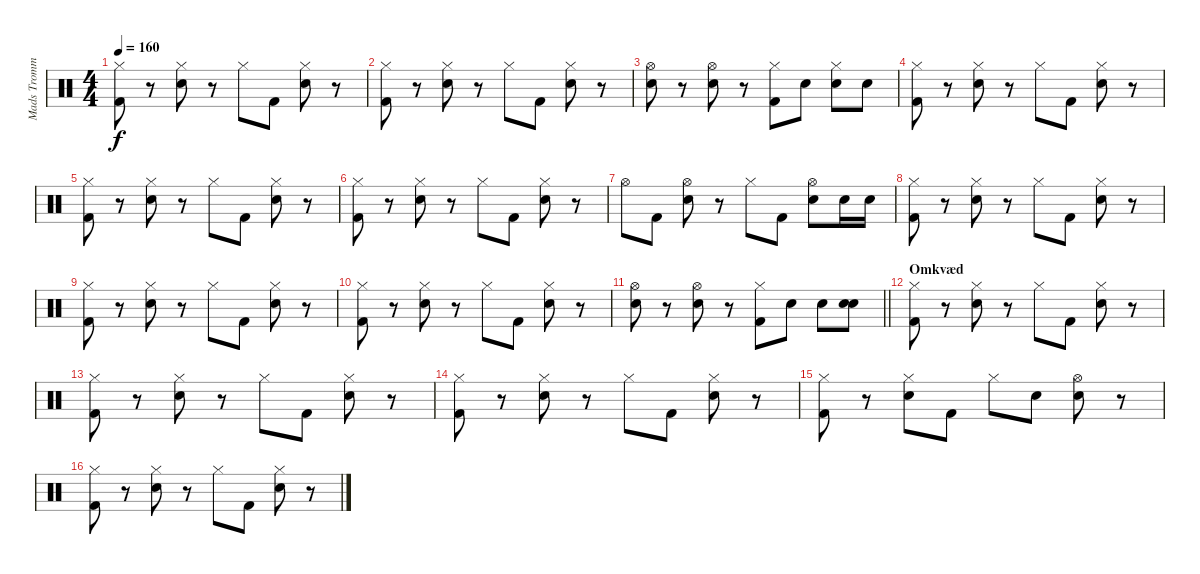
\track ("Mads Trommer" "Mads Tromm") {instrument percussion}
\staff {score}
\articulation defaults
\ts (4 4)
\tempo 160
\clef neutral
\ks c
("Hi-Hat (closed)" "Kick (hit) 2").8{dy f} r.8 ("Hi-Hat (closed)" "Electric Snare (hit)").8 r.8 "Hi-Hat (closed)".8 "Kick (hit) 2".8 ("Hi-Hat (closed)" "Electric Snare (hit)").8 r.8 |
("Hi-Hat (closed)" "Kick (hit) 2").8 r.8 ("Hi-Hat (closed)" "Electric Snare (hit)").8 r.8 "Hi-Hat (closed)".8 "Kick (hit) 2".8 ("Hi-Hat (closed)" "Electric Snare (hit)").8 r.8 |
("Hi-Hat (open)" "Electric Snare (hit)").8 r.8 ("Hi-Hat (open)" "Electric Snare (hit)").8 r.8 ("Hi-Hat (closed)" "Kick (hit) 2").8 "Electric Snare (hit)".8 ("Hi-Hat (closed)" "Electric Snare (hit)").8 "Electric Snare (hit)".8 |
("Hi-Hat (closed)" "Kick (hit) 2").8 r.8 ("Hi-Hat (closed)" "Electric Snare (hit)").8 r.8 "Hi-Hat (closed)".8 "Kick (hit) 2".8 ("Hi-Hat (closed)" "Electric Snare (hit)").8 r.8 |
("Hi-Hat (closed)" "Kick (hit) 2").8 r.8 ("Hi-Hat (closed)" "Electric Snare (hit)").8 r.8 "Hi-Hat (closed)".8 "Kick (hit) 2".8 ("Hi-Hat (closed)" "Electric Snare (hit)").8 r.8 |
("Hi-Hat (closed)" "Kick (hit) 2").8 r.8 ("Hi-Hat (closed)" "Electric Snare (hit)").8 r.8 "Hi-Hat (closed)".8 "Kick (hit) 2".8 ("Hi-Hat (closed)" "Electric Snare (hit)").8 r.8 |
"Hi-Hat (open)".8 "Kick (hit) 2".8 ("Hi-Hat (open)" "Electric Snare (hit)").8 r.8 "Hi-Hat (closed)".8 "Kick (hit) 2".8 ("Hi-Hat (open)" "Electric Snare (hit)").8 "Electric Snare (hit)".16 "Electric Snare (hit)".16 |
("Hi-Hat (closed)" "Kick (hit) 2").8 r.8 ("Hi-Hat (closed)" "Electric Snare (hit)").8 r.8 "Hi-Hat (closed)".8 "Kick (hit) 2".8 ("Hi-Hat (closed)" "Electric Snare (hit)").8 r.8 |
("Hi-Hat (closed)" "Kick (hit) 2").8 r.8 ("Hi-Hat (closed)" "Electric Snare (hit)").8 r.8 "Hi-Hat (closed)".8 "Kick (hit) 2".8 ("Hi-Hat (closed)" "Electric Snare (hit)").8 r.8 |
("Hi-Hat (closed)" "Kick (hit) 2").8 r.8 ("Hi-Hat (closed)" "Electric Snare (hit)").8 r.8 "Hi-Hat (closed)".8 "Kick (hit) 2".8 ("Hi-Hat (closed)" "Electric Snare (hit)").8 r.8 |
\barLineRight lightlight
("Hi-Hat (open)" "Electric Snare (hit)").8 r.8 ("Hi-Hat (open)" "Electric Snare (hit)").8 r.8 ("Hi-Hat (closed)" "Kick (hit) 2").8 "Electric Snare (hit)".8 "Electric Snare (hit)".8 ("Electric Snare (hit)" "Electric Snare (hit)").8 |
\section ("" "Omkvæd")
("Hi-Hat (closed)" "Kick (hit) 2").8 r.8 ("Hi-Hat (closed)" "Electric Snare (hit)").8 r.8 "Hi-Hat (closed)".8 "Kick (hit) 2".8 ("Hi-Hat (closed)" "Electric Snare (hit)").8 r.8 |
("Hi-Hat (closed)" "Kick (hit) 2").8 r.8 ("Hi-Hat (closed)" "Electric Snare (hit)").8 r.8 "Hi-Hat (closed)".8 "Kick (hit) 2".8 ("Hi-Hat (closed)" "Electric Snare (hit)").8 r.8 |
("Hi-Hat (closed)" "Kick (hit) 2").8 r.8 ("Hi-Hat (closed)" "Electric Snare (hit)").8 r.8 "Hi-Hat (closed)".8 "Kick (hit) 2".8 ("Hi-Hat (closed)" "Electric Snare (hit)").8 r.8 |
("Hi-Hat (closed)" "Kick (hit) 2").8 r.8 ("Hi-Hat (closed)" "Electric Snare (hit)").8 "Kick (hit) 2".8 "Hi-Hat (closed)".8 "Electric Snare (hit)".8 ("Hi-Hat (open)" "Electric Snare (hit)").8 r.8 |
("Hi-Hat (closed)" "Kick (hit) 2").8 r.8 ("Hi-Hat (closed)" "Electric Snare (hit)").8 r.8 "Hi-Hat (closed)".8 "Kick (hit) 2".8 ("Hi-Hat (closed)" "Electric Snare (hit)").8 r.8
